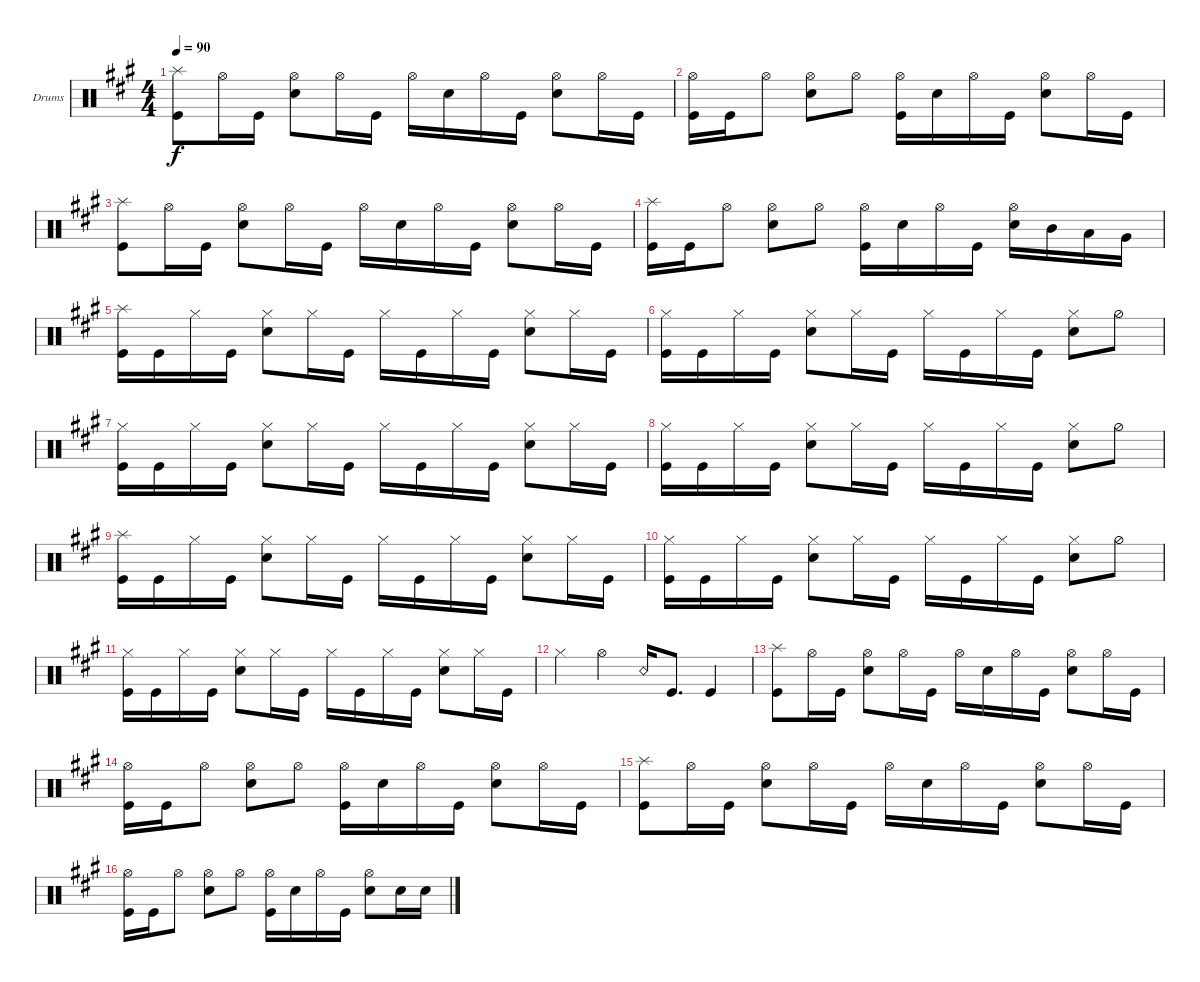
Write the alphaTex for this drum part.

\bracketExtendMode groupsimilarinstruments
\firstSystemTrackNameOrientation horizontal
\otherSystemsTrackNameOrientation horizontal
\track ("Drumkit" "Drums") {instrument percussion}
\staff {score}
\articulation defaults
\ts (4 4)
\tempo 90
\clef neutral
\ks f#minor
("Kick (hit)" "Splash (hit)").8{dy f} "Hi-Hat (open)".16 "Kick (hit)".16 ("Snare (hit) 2" "Hi-Hat (open)").8 "Hi-Hat (open)".16 "Kick (hit)".16 "Hi-Hat (open)".16 "Snare (hit) 2".16 "Hi-Hat (open)".16 "Kick (hit)".16 ("Snare (hit) 2" "Hi-Hat (open)").8 "Hi-Hat (open)".16 "Kick (hit)".16 |
("Hi-Hat (open)" "Kick (hit)").16 "Kick (hit)".16 "Hi-Hat (open)".8 ("Snare (hit) 2" "Hi-Hat (open)").8 "Hi-Hat (open)".8 ("Kick (hit)" "Hi-Hat (open)").16 "Snare (hit) 2".16 "Hi-Hat (open)".16 "Kick (hit)".16 ("Snare (hit) 2" "Hi-Hat (open)").8 "Hi-Hat (open)".16 "Kick (hit)".16 |
("Kick (hit)" "Splash (hit)").8 "Hi-Hat (open)".16 "Kick (hit)".16 ("Snare (hit) 2" "Hi-Hat (open)").8 "Hi-Hat (open)".16 "Kick (hit)".16 "Hi-Hat (open)".16 "Snare (hit) 2".16 "Hi-Hat (open)".16 "Kick (hit)".16 ("Snare (hit) 2" "Hi-Hat (open)").8 "Hi-Hat (open)".16 "Kick (hit)".16 |
("Kick (hit)" "Splash (hit)").16 "Kick (hit)".16 "Hi-Hat (open)".8 ("Snare (hit) 2" "Hi-Hat (open)").8 "Hi-Hat (open)".8 ("Kick (hit)" "Hi-Hat (open)").16 "Snare (hit) 2".16 "Hi-Hat (open)".16 "Kick (hit)".16 ("Snare (hit) 2" "Hi-Hat (open)").16 "Mid Tom (hit)".16 "Low Tom (hit)".16 "Very Low Tom (hit)".16 |
("Kick (hit)" "Splash (hit)").16 "Kick (hit)".16 "Hi-Hat (closed)".16 "Kick (hit)".16 ("Snare (hit) 2" "Hi-Hat (closed)").8 "Hi-Hat (closed)".16 "Kick (hit)".16 "Hi-Hat (closed)".16 "Kick (hit)".16 "Hi-Hat (closed)".16 "Kick (hit)".16 ("Snare (hit) 2" "Hi-Hat (closed)").8 "Hi-Hat (closed)".16 "Kick (hit)".16 |
("Kick (hit)" "Hi-Hat (closed)").16 "Kick (hit)".16 "Hi-Hat (closed)".16 "Kick (hit)".16 ("Snare (hit) 2" "Hi-Hat (closed)").8 "Hi-Hat (closed)".16 "Kick (hit)".16 "Hi-Hat (closed)".16 "Kick (hit)".16 "Hi-Hat (closed)".16 "Kick (hit)".16 ("Snare (hit) 2" "Hi-Hat (closed)").8 "Hi-Hat (half)".8 |
("Kick (hit)" "Hi-Hat (closed)").16 "Kick (hit)".16 "Hi-Hat (closed)".16 "Kick (hit)".16 ("Snare (hit) 2" "Hi-Hat (closed)").8 "Hi-Hat (closed)".16 "Kick (hit)".16 "Hi-Hat (closed)".16 "Kick (hit)".16 "Hi-Hat (closed)".16 "Kick (hit)".16 ("Snare (hit) 2" "Hi-Hat (closed)").8 "Hi-Hat (closed)".16 "Kick (hit)".16 |
("Kick (hit)" "Hi-Hat (closed)").16 "Kick (hit)".16 "Hi-Hat (closed)".16 "Kick (hit)".16 ("Snare (hit) 2" "Hi-Hat (closed)").8 "Hi-Hat (closed)".16 "Kick (hit)".16 "Hi-Hat (closed)".16 "Kick (hit)".16 "Hi-Hat (closed)".16 "Kick (hit)".16 ("Snare (hit) 2" "Hi-Hat (closed)").8 "Hi-Hat (half)".8 |
("Kick (hit)" "Splash (hit)").16 "Kick (hit)".16 "Hi-Hat (closed)".16 "Kick (hit)".16 ("Snare (hit) 2" "Hi-Hat (closed)").8 "Hi-Hat (closed)".16 "Kick (hit)".16 "Hi-Hat (closed)".16 "Kick (hit)".16 "Hi-Hat (closed)".16 "Kick (hit)".16 ("Snare (hit) 2" "Hi-Hat (closed)").8 "Hi-Hat (closed)".16 "Kick (hit)".16 |
("Kick (hit)" "Hi-Hat (closed)").16 "Kick (hit)".16 "Hi-Hat (closed)".16 "Kick (hit)".16 ("Snare (hit) 2" "Hi-Hat (closed)").8 "Hi-Hat (closed)".16 "Kick (hit)".16 "Hi-Hat (closed)".16 "Kick (hit)".16 "Hi-Hat (closed)".16 "Kick (hit)".16 ("Snare (hit) 2" "Hi-Hat (closed)").8 "Hi-Hat (half)".8 |
("Kick (hit)" "Hi-Hat (closed)").16 "Kick (hit)".16 "Hi-Hat (closed)".16 "Kick (hit)".16 ("Snare (hit) 2" "Hi-Hat (closed)").8 "Hi-Hat (closed)".16 "Kick (hit)".16 "Hi-Hat (closed)".16 "Kick (hit)".16 "Hi-Hat (closed)".16 "Kick (hit)".16 ("Snare (hit) 2" "Hi-Hat (closed)").8 "Hi-Hat (closed)".16 "Kick (hit)".16 |
"Hi-Hat (closed)".4 "Hi-Hat (open)".4 "Snare (rim shot)".16 "Kick (hit)".8{d} "Kick (hit)".4 |
("Kick (hit)" "Splash (hit)").8 "Hi-Hat (open)".16 "Kick (hit)".16 ("Snare (hit) 2" "Hi-Hat (open)").8 "Hi-Hat (open)".16 "Kick (hit)".16 "Hi-Hat (open)".16 "Snare (hit) 2".16 "Hi-Hat (open)".16 "Kick (hit)".16 ("Snare (hit) 2" "Hi-Hat (open)").8 "Hi-Hat (open)".16 "Kick (hit)".16 |
("Hi-Hat (open)" "Kick (hit)").16 "Kick (hit)".16 "Hi-Hat (open)".8 ("Snare (hit) 2" "Hi-Hat (open)").8 "Hi-Hat (open)".8 ("Kick (hit)" "Hi-Hat (open)").16 "Snare (hit) 2".16 "Hi-Hat (open)".16 "Kick (hit)".16 ("Snare (hit) 2" "Hi-Hat (open)").8 "Hi-Hat (open)".16 "Kick (hit)".16 |
("Kick (hit)" "Splash (hit)").8 "Hi-Hat (open)".16 "Kick (hit)".16 ("Snare (hit) 2" "Hi-Hat (open)").8 "Hi-Hat (open)".16 "Kick (hit)".16 "Hi-Hat (open)".16 "Snare (hit) 2".16 "Hi-Hat (open)".16 "Kick (hit)".16 ("Snare (hit) 2" "Hi-Hat (open)").8 "Hi-Hat (open)".16 "Kick (hit)".16 |
("Hi-Hat (open)" "Kick (hit)").16 "Kick (hit)".16 "Hi-Hat (open)".8 ("Snare (hit) 2" "Hi-Hat (open)").8 "Hi-Hat (open)".8 ("Kick (hit)" "Hi-Hat (open)").16 "Snare (hit) 2".16 "Hi-Hat (open)".16 "Kick (hit)".16 ("Snare (hit) 2" "Hi-Hat (open)").8 "Snare (hit) 2".16 "Snare (hit) 2".16
